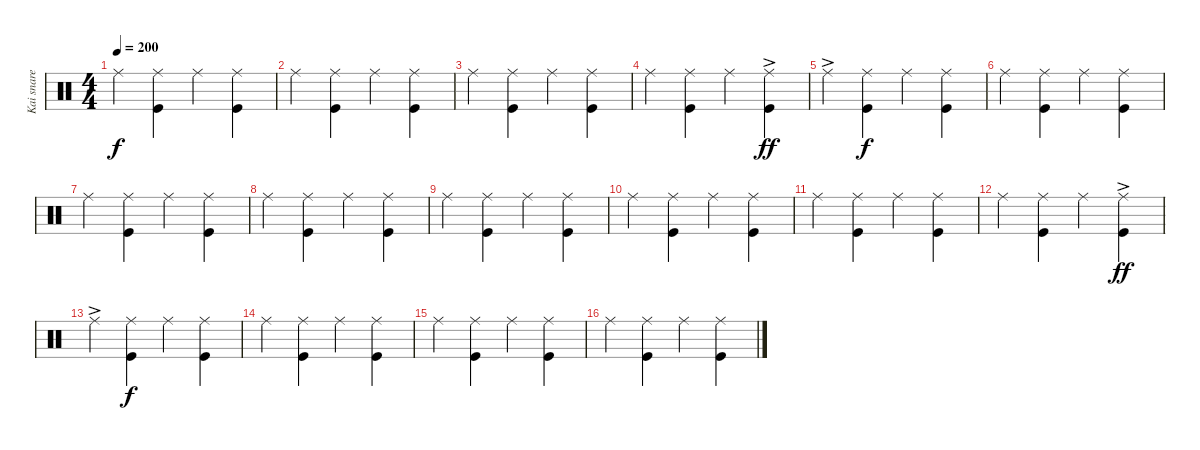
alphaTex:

\track ("Kai snare" "Kai snare") {instrument percussion}
\staff {score}
\articulation defaults
\ts (4 4)
\tempo 200
\clef neutral
\ks c "Ride (middle)".4{dy f}
("Ride (middle)" "Kick (hit)").4 "Ride (middle)".4 ("Ride (middle)" "Kick (hit)").4 |
"Ride (middle)".4 ("Ride (middle)" "Kick (hit)").4 "Ride (middle)".4 ("Ride (middle)" "Kick (hit)").4 |
"Ride (middle)".4 ("Ride (middle)" "Kick (hit)").4 "Ride (middle)".4 ("Ride (middle)" "Kick (hit)").4 |
"Ride (middle)".4 ("Ride (middle)" "Kick (hit)").4 "Ride (middle)".4 ("Ride (middle)"{ac} "Kick (hit)").4{dy ff} |
"Ride (middle)"{ac}.4 ("Ride (middle)" "Kick (hit)").4{dy f} "Ride (middle)".4 ("Ride (middle)" "Kick (hit)").4 |
"Ride (middle)".4 ("Ride (middle)" "Kick (hit)").4 "Ride (middle)".4 ("Ride (middle)" "Kick (hit)").4 |
"Ride (middle)".4 ("Ride (middle)" "Kick (hit)").4 "Ride (middle)".4 ("Ride (middle)" "Kick (hit)").4 |
"Ride (middle)".4 ("Ride (middle)" "Kick (hit)").4 "Ride (middle)".4 ("Ride (middle)" "Kick (hit)").4 |
"Ride (middle)".4 ("Ride (middle)" "Kick (hit)").4 "Ride (middle)".4 ("Ride (middle)" "Kick (hit)").4 |
"Ride (middle)".4 ("Ride (middle)" "Kick (hit)").4 "Ride (middle)".4 ("Ride (middle)" "Kick (hit)").4 |
"Ride (middle)".4 ("Ride (middle)" "Kick (hit)").4 "Ride (middle)".4 ("Ride (middle)" "Kick (hit)").4 |
"Ride (middle)".4 ("Ride (middle)" "Kick (hit)").4 "Ride (middle)".4 ("Ride (middle)"{ac} "Kick (hit)").4{dy ff} |
"Ride (middle)"{ac}.4 ("Ride (middle)" "Kick (hit)").4{dy f} "Ride (middle)".4 ("Ride (middle)" "Kick (hit)").4 |
"Ride (middle)".4 ("Ride (middle)" "Kick (hit)").4 "Ride (middle)".4 ("Ride (middle)" "Kick (hit)").4 |
"Ride (middle)".4 ("Ride (middle)" "Kick (hit)").4 "Ride (middle)".4 ("Ride (middle)" "Kick (hit)").4 |
"Ride (middle)".4 ("Ride (middle)" "Kick (hit)").4 "Ride (middle)".4 ("Ride (middle)" "Kick (hit)").4
